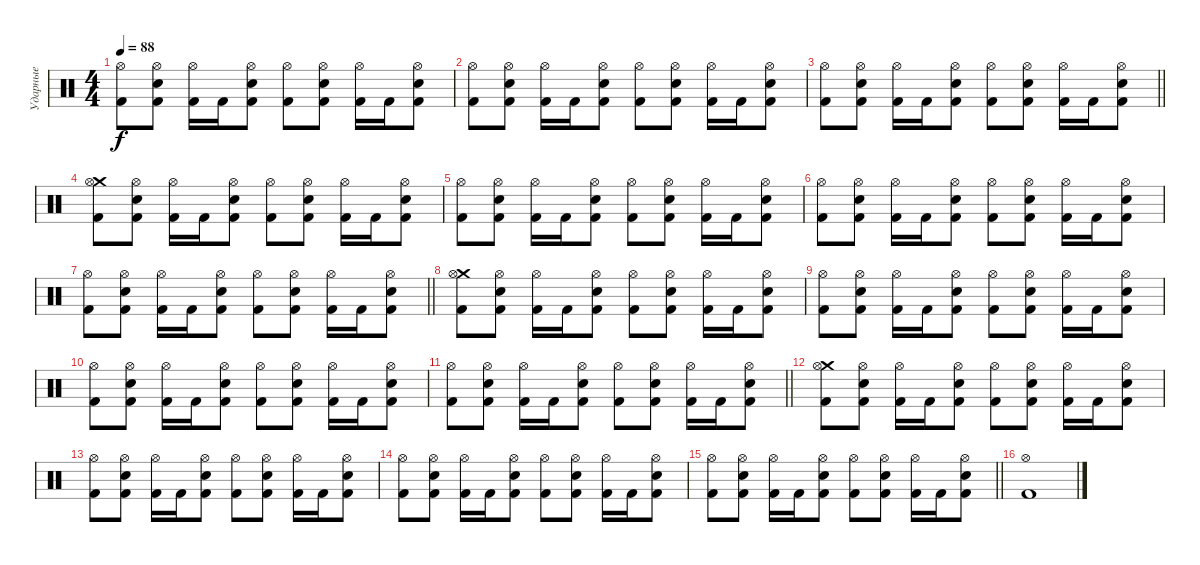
\track ("Ударные" "Ударные") {instrument percussion}
\staff {score}
\articulation defaults
\ts (4 4)
\tempo 88
\clef neutral
\ks c
("Kick (hit) 2" "Hi-Hat (open)").8{dy f} ("Snare (hit) 2" "Kick (hit) 2" "Hi-Hat (open)").8 ("Kick (hit) 2" "Hi-Hat (open)").16 "Kick (hit) 2".16 ("Snare (hit) 2" "Kick (hit) 2" "Hi-Hat (open)").8 ("Kick (hit) 2" "Hi-Hat (open)").8 ("Snare (hit) 2" "Kick (hit) 2" "Hi-Hat (open)").8 ("Kick (hit) 2" "Hi-Hat (open)").16 "Kick (hit) 2".16 ("Snare (hit) 2" "Kick (hit) 2" "Hi-Hat (open)").8 |
("Kick (hit) 2" "Hi-Hat (open)").8 ("Snare (hit) 2" "Kick (hit) 2" "Hi-Hat (open)").8 ("Kick (hit) 2" "Hi-Hat (open)").16 "Kick (hit) 2".16 ("Snare (hit) 2" "Kick (hit) 2" "Hi-Hat (open)").8 ("Kick (hit) 2" "Hi-Hat (open)").8 ("Snare (hit) 2" "Kick (hit) 2" "Hi-Hat (open)").8 ("Kick (hit) 2" "Hi-Hat (open)").16 "Kick (hit) 2".16 ("Snare (hit) 2" "Kick (hit) 2" "Hi-Hat (open)").8 |
\barLineRight lightlight
("Kick (hit) 2" "Hi-Hat (open)").8 ("Snare (hit) 2" "Kick (hit) 2" "Hi-Hat (open)").8 ("Kick (hit) 2" "Hi-Hat (open)").16 "Kick (hit) 2".16 ("Snare (hit) 2" "Kick (hit) 2" "Hi-Hat (open)").8 ("Kick (hit) 2" "Hi-Hat (open)").8 ("Snare (hit) 2" "Kick (hit) 2" "Hi-Hat (open)").8 ("Kick (hit) 2" "Hi-Hat (open)").16 "Kick (hit) 2".16 ("Snare (hit) 2" "Kick (hit) 2" "Hi-Hat (open)").8 |
("Kick (hit) 2" "Crash medium (hit)" "Hi-Hat (open)").8 ("Snare (hit) 2" "Kick (hit) 2" "Hi-Hat (open)").8 ("Kick (hit) 2" "Hi-Hat (open)").16 "Kick (hit) 2".16 ("Snare (hit) 2" "Kick (hit) 2" "Hi-Hat (open)").8 ("Kick (hit) 2" "Hi-Hat (open)").8 ("Snare (hit) 2" "Kick (hit) 2" "Hi-Hat (open)").8 ("Kick (hit) 2" "Hi-Hat (open)").16 "Kick (hit) 2".16 ("Snare (hit) 2" "Kick (hit) 2" "Hi-Hat (open)").8 |
("Kick (hit) 2" "Hi-Hat (open)").8 ("Snare (hit) 2" "Kick (hit) 2" "Hi-Hat (open)").8 ("Kick (hit) 2" "Hi-Hat (open)").16 "Kick (hit) 2".16 ("Snare (hit) 2" "Kick (hit) 2" "Hi-Hat (open)").8 ("Kick (hit) 2" "Hi-Hat (open)").8 ("Snare (hit) 2" "Kick (hit) 2" "Hi-Hat (open)").8 ("Kick (hit) 2" "Hi-Hat (open)").16 "Kick (hit) 2".16 ("Snare (hit) 2" "Kick (hit) 2" "Hi-Hat (open)").8 |
("Kick (hit) 2" "Hi-Hat (open)").8 ("Snare (hit) 2" "Kick (hit) 2" "Hi-Hat (open)").8 ("Kick (hit) 2" "Hi-Hat (open)").16 "Kick (hit) 2".16 ("Snare (hit) 2" "Kick (hit) 2" "Hi-Hat (open)").8 ("Kick (hit) 2" "Hi-Hat (open)").8 ("Snare (hit) 2" "Kick (hit) 2" "Hi-Hat (open)").8 ("Kick (hit) 2" "Hi-Hat (open)").16 "Kick (hit) 2".16 ("Snare (hit) 2" "Kick (hit) 2" "Hi-Hat (open)").8 |
\barLineRight lightlight
("Kick (hit) 2" "Hi-Hat (open)").8 ("Snare (hit) 2" "Kick (hit) 2" "Hi-Hat (open)").8 ("Kick (hit) 2" "Hi-Hat (open)").16 "Kick (hit) 2".16 ("Snare (hit) 2" "Kick (hit) 2" "Hi-Hat (open)").8 ("Kick (hit) 2" "Hi-Hat (open)").8 ("Snare (hit) 2" "Kick (hit) 2" "Hi-Hat (open)").8 ("Kick (hit) 2" "Hi-Hat (open)").16 "Kick (hit) 2".16 ("Snare (hit) 2" "Kick (hit) 2" "Hi-Hat (open)").8 |
("Kick (hit) 2" "Crash medium (hit)" "Hi-Hat (open)").8 ("Snare (hit) 2" "Kick (hit) 2" "Hi-Hat (open)").8 ("Kick (hit) 2" "Hi-Hat (open)").16 "Kick (hit) 2".16 ("Snare (hit) 2" "Kick (hit) 2" "Hi-Hat (open)").8 ("Kick (hit) 2" "Hi-Hat (open)").8 ("Snare (hit) 2" "Kick (hit) 2" "Hi-Hat (open)").8 ("Kick (hit) 2" "Hi-Hat (open)").16 "Kick (hit) 2".16 ("Snare (hit) 2" "Kick (hit) 2" "Hi-Hat (open)").8 |
("Kick (hit) 2" "Hi-Hat (open)").8 ("Snare (hit) 2" "Kick (hit) 2" "Hi-Hat (open)").8 ("Kick (hit) 2" "Hi-Hat (open)").16 "Kick (hit) 2".16 ("Snare (hit) 2" "Kick (hit) 2" "Hi-Hat (open)").8 ("Kick (hit) 2" "Hi-Hat (open)").8 ("Snare (hit) 2" "Kick (hit) 2" "Hi-Hat (open)").8 ("Kick (hit) 2" "Hi-Hat (open)").16 "Kick (hit) 2".16 ("Snare (hit) 2" "Kick (hit) 2" "Hi-Hat (open)").8 |
("Kick (hit) 2" "Hi-Hat (open)").8 ("Snare (hit) 2" "Kick (hit) 2" "Hi-Hat (open)").8 ("Kick (hit) 2" "Hi-Hat (open)").16 "Kick (hit) 2".16 ("Snare (hit) 2" "Kick (hit) 2" "Hi-Hat (open)").8 ("Kick (hit) 2" "Hi-Hat (open)").8 ("Snare (hit) 2" "Kick (hit) 2" "Hi-Hat (open)").8 ("Kick (hit) 2" "Hi-Hat (open)").16 "Kick (hit) 2".16 ("Snare (hit) 2" "Kick (hit) 2" "Hi-Hat (open)").8 |
\barLineRight lightlight
("Kick (hit) 2" "Hi-Hat (open)").8 ("Snare (hit) 2" "Kick (hit) 2" "Hi-Hat (open)").8 ("Kick (hit) 2" "Hi-Hat (open)").16 "Kick (hit) 2".16 ("Snare (hit) 2" "Kick (hit) 2" "Hi-Hat (open)").8 ("Kick (hit) 2" "Hi-Hat (open)").8 ("Snare (hit) 2" "Kick (hit) 2" "Hi-Hat (open)").8 ("Kick (hit) 2" "Hi-Hat (open)").16 "Kick (hit) 2".16 ("Snare (hit) 2" "Kick (hit) 2" "Hi-Hat (open)").8 |
("Kick (hit) 2" "Crash medium (hit)" "Hi-Hat (open)").8 ("Snare (hit) 2" "Kick (hit) 2" "Hi-Hat (open)").8 ("Kick (hit) 2" "Hi-Hat (open)").16 "Kick (hit) 2".16 ("Snare (hit) 2" "Kick (hit) 2" "Hi-Hat (open)").8 ("Kick (hit) 2" "Hi-Hat (open)").8 ("Snare (hit) 2" "Kick (hit) 2" "Hi-Hat (open)").8 ("Kick (hit) 2" "Hi-Hat (open)").16 "Kick (hit) 2".16 ("Snare (hit) 2" "Kick (hit) 2" "Hi-Hat (open)").8 |
("Kick (hit) 2" "Hi-Hat (open)").8 ("Snare (hit) 2" "Kick (hit) 2" "Hi-Hat (open)").8 ("Kick (hit) 2" "Hi-Hat (open)").16 "Kick (hit) 2".16 ("Snare (hit) 2" "Kick (hit) 2" "Hi-Hat (open)").8 ("Kick (hit) 2" "Hi-Hat (open)").8 ("Snare (hit) 2" "Kick (hit) 2" "Hi-Hat (open)").8 ("Kick (hit) 2" "Hi-Hat (open)").16 "Kick (hit) 2".16 ("Snare (hit) 2" "Kick (hit) 2" "Hi-Hat (open)").8 |
("Kick (hit) 2" "Hi-Hat (open)").8 ("Snare (hit) 2" "Kick (hit) 2" "Hi-Hat (open)").8 ("Kick (hit) 2" "Hi-Hat (open)").16 "Kick (hit) 2".16 ("Snare (hit) 2" "Kick (hit) 2" "Hi-Hat (open)").8 ("Kick (hit) 2" "Hi-Hat (open)").8 ("Snare (hit) 2" "Kick (hit) 2" "Hi-Hat (open)").8 ("Kick (hit) 2" "Hi-Hat (open)").16 "Kick (hit) 2".16 ("Snare (hit) 2" "Kick (hit) 2" "Hi-Hat (open)").8 |
\barLineRight lightlight
("Kick (hit) 2" "Hi-Hat (open)").8 ("Snare (hit) 2" "Kick (hit) 2" "Hi-Hat (open)").8 ("Kick (hit) 2" "Hi-Hat (open)").16 "Kick (hit) 2".16 ("Snare (hit) 2" "Kick (hit) 2" "Hi-Hat (open)").8 ("Kick (hit) 2" "Hi-Hat (open)").8 ("Snare (hit) 2" "Kick (hit) 2" "Hi-Hat (open)").8 ("Kick (hit) 2" "Hi-Hat (open)").16 "Kick (hit) 2".16 ("Snare (hit) 2" "Kick (hit) 2" "Hi-Hat (open)").8 |
("Kick (hit) 2" "Hi-Hat (open)").1
